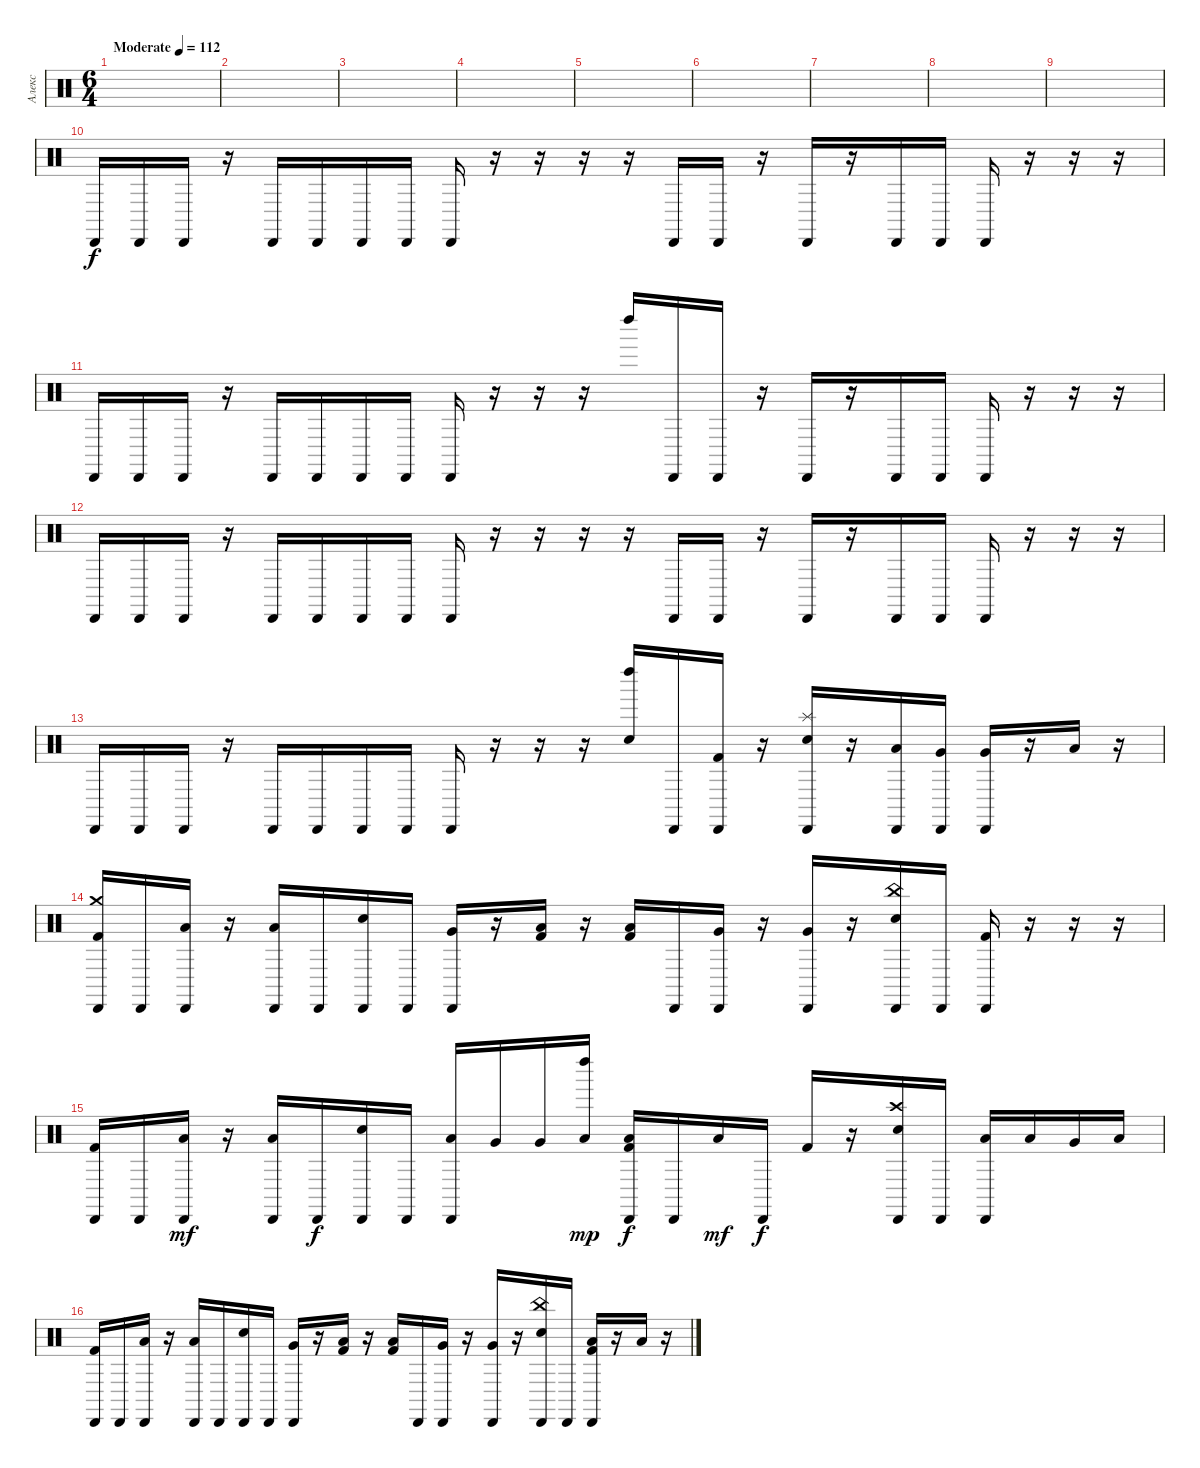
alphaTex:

\track ("Алекс" "Алекс") {instrument percussion}
\staff {score}
\articulation defaults
\ts (6 4)
\tempo (112 "Moderate")
\clef neutral
\ks c
|
|
|
|
|
|
|
|
|
"Cabasa (hit)".16 "Cabasa (hit)".16 "Cabasa (hit)".16 r.16 "Cabasa (hit)".16 "Cabasa (hit)".16 "Cabasa (hit)".16 "Cabasa (hit)".16 "Cabasa (hit)".16 r.16 r.16 r.16 r.16 "Cabasa (hit)".16 "Cabasa (hit)".16 r.16 "Cabasa (hit)".16 r.16 "Cabasa (hit)".16 "Cabasa (hit)".16 "Cabasa (hit)".16 r.16 r.16 r.16 |
"Cabasa (hit)".16 "Cabasa (hit)".16 "Cabasa (hit)".16 r.16 "Cabasa (hit)".16 "Cabasa (hit)".16 "Cabasa (hit)".16 "Cabasa (hit)".16 "Cabasa (hit)".16 r.16 r.16 r.16 "Left Maraca (hit)".16 "Cabasa (hit)".16 "Cabasa (hit)".16 r.16 "Cabasa (hit)".16 r.16 "Cabasa (hit)".16 "Cabasa (hit)".16 "Cabasa (hit)".16 r.16 r.16 r.16 |
"Cabasa (hit)".16 "Cabasa (hit)".16 "Cabasa (hit)".16 r.16 "Cabasa (hit)".16 "Cabasa (hit)".16 "Cabasa (hit)".16 "Cabasa (hit)".16 "Cabasa (hit)".16 r.16 r.16 r.16 r.16 "Cabasa (hit)".16 "Cabasa (hit)".16 r.16 "Cabasa (hit)".16 r.16 "Cabasa (hit)".16 "Cabasa (hit)".16 "Cabasa (hit)".16 r.16 r.16 r.16 |
"Cabasa (hit)".16 "Cabasa (hit)".16 "Cabasa (hit)".16 r.16 "Cabasa (hit)".16 "Cabasa (hit)".16 "Cabasa (hit)".16 "Cabasa (hit)".16 "Cabasa (hit)".16 r.16 r.16 r.16 ("Electric Snare (hit)" "Left Maraca (hit)").16 "Cabasa (hit)".16 ("Cabasa (hit)" "Kick (hit) 2").16 r.16 ("Splash (hit)" "Electric Snare (hit)" "Cabasa (hit)").16 r.16 ("Low Tom (hit)" "Cabasa (hit)").16 ("Very Low Tom (hit)" "Cabasa (hit)").16{balance 4} ("Very Low Tom (hit)" "Cabasa (hit)").16{balance 12} r.16 "Low Floor Tom (hit)".16{balance 4} r.16 |
("Crash medium (hit)" "Cabasa (hit)" "Kick (hit) 2").16{balance 8} "Cabasa (hit)".16 ("Low Floor Tom (hit)" "Cabasa (hit)").16{balance 5} r.16 ("Low Floor Tom (hit)" "Cabasa (hit)").16{balance 5} "Cabasa (hit)".16 ("Electric Snare (hit)" "Cabasa (hit)").16 "Cabasa (hit)".16 ("Very Low Tom (hit)" "Cabasa (hit)").16{balance 11} r.16 ("Low Floor Tom (hit)" "Kick (hit) 2").16{balance 5} r.16 ("Low Floor Tom (hit)" "Kick (hit) 2").16{balance 5} "Cabasa (hit)".16 ("Very Low Tom (hit)" "Cabasa (hit)").16{balance 9} r.16 ("Very Low Tom (hit)" "Cabasa (hit)").16{balance 9} r.16 ("China (hit)" "Electric Snare (hit)" "Cabasa (hit)").16 "Cabasa (hit)".16 ("Cabasa (hit)" "Kick (hit) 2").16 r.16 r.16 r.16 |
("Cabasa (hit)" "Kick (hit) 2").16{balance 8} "Cabasa (hit)".16 ("Low Floor Tom (hit)" "Cabasa (hit)").16{dy mf} r.16 ("Low Floor Tom (hit)" "Cabasa (hit)").16 "Cabasa (hit)".16{dy f} ("Electric Snare (hit)" "Cabasa (hit)").16 "Cabasa (hit)".16 ("Low Tom (hit)" "Cabasa (hit)").16{balance 12} "Very Low Tom (hit)".16{balance 8} "Very Low Tom (hit)".16{balance 11} ("Low Floor Tom (hit)" "Left Maraca (hit)").16{dy mp balance 5} ("Low Floor Tom (hit)" "Cabasa (hit)" "Kick (hit) 2").16{dy f balance 5} "Cabasa (hit)".16{balance 8} "Low Floor Tom (hit)".16{dy mf balance 8} "Cabasa (hit)".16{dy f} "Kick (hit) 2".16 r.16 ("Crash high (hit)" "Electric Snare (hit)" "Cabasa (hit)").16 "Cabasa (hit)".16{balance 4} ("Low Tom (hit)" "Cabasa (hit)").16{balance 4} "Low Tom (hit)".16{balance 11} "Very Low Tom (hit)".16{balance 4} "Low Floor Tom (hit)".16{balance 5} |
("Cabasa (hit)" "Kick (hit) 2").16{balance 8} "Cabasa (hit)".16 ("Low Floor Tom (hit)" "Cabasa (hit)").16{balance 5} r.16 ("Low Floor Tom (hit)" "Cabasa (hit)").16{balance 5} "Cabasa (hit)".16 ("Electric Snare (hit)" "Cabasa (hit)").16 "Cabasa (hit)".16 ("Very Low Tom (hit)" "Cabasa (hit)").16{balance 11} r.16 ("Low Floor Tom (hit)" "Kick (hit) 2").16{balance 5} r.16 ("Low Floor Tom (hit)" "Kick (hit) 2").16{balance 5} "Cabasa (hit)".16 ("Very Low Tom (hit)" "Cabasa (hit)").16{balance 9} r.16 ("Very Low Tom (hit)" "Cabasa (hit)").16{balance 9} r.16 ("China (hit)" "Electric Snare (hit)" "Cabasa (hit)").16 "Cabasa (hit)".16 ("Low Floor Tom (hit)" "Cabasa (hit)" "Kick (hit) 2").16 r.16 "Low Floor Tom (hit)".16 r.16
